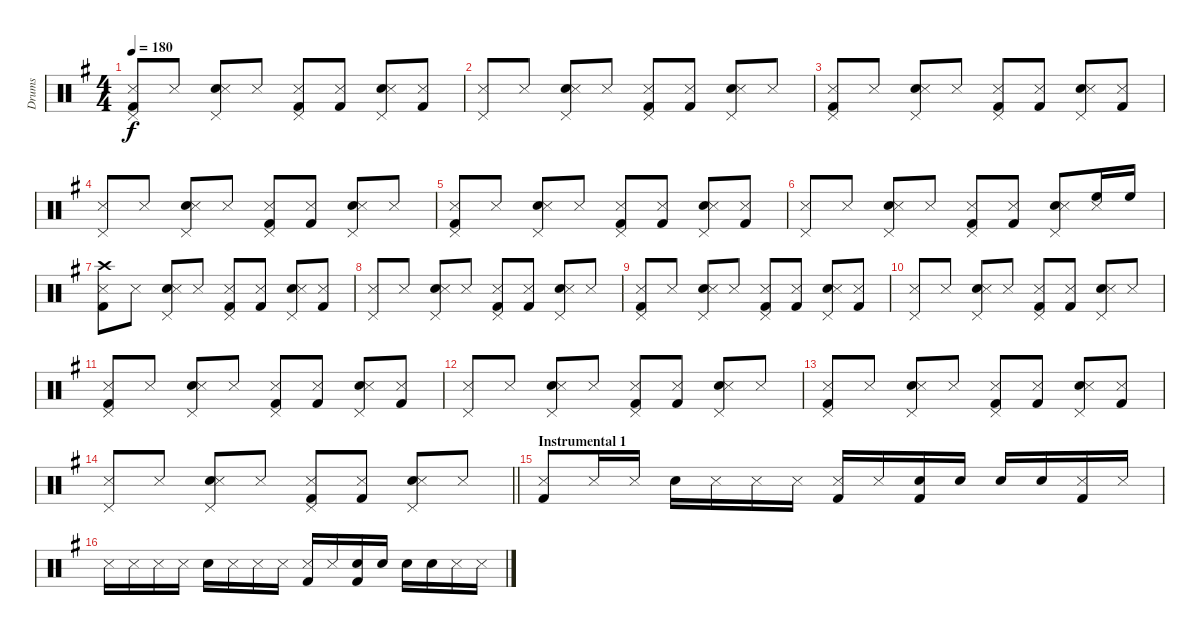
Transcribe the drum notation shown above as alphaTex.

\track ("Drums" "Drums") {instrument percussion bank 255}
\staff {score}
\articulation defaults
\ts (4 4)
\tempo 180
\clef neutral
\ks g
("Pedal Hi-Hat (hit)" "Snare (side stick) 3" "Kick (hit) 2").8{dy f} "Snare (side stick) 3".8 ("Pedal Hi-Hat (hit)" "Snare (hit) 2" "Snare (side stick) 3").8 "Snare (side stick) 3".8 ("Pedal Hi-Hat (hit)" "Snare (side stick) 3" "Kick (hit) 2").8 ("Snare (side stick) 3" "Kick (hit) 2").8 ("Pedal Hi-Hat (hit)" "Snare (hit) 2" "Snare (side stick) 3").8 ("Snare (side stick) 3" "Kick (hit) 2").8 |
("Pedal Hi-Hat (hit)" "Snare (side stick) 3").8 "Snare (side stick) 3".8 ("Pedal Hi-Hat (hit)" "Snare (hit) 2" "Snare (side stick) 3").8 "Snare (side stick) 3".8 ("Pedal Hi-Hat (hit)" "Snare (side stick) 3" "Kick (hit) 2").8 ("Snare (side stick) 3" "Kick (hit) 2").8 ("Pedal Hi-Hat (hit)" "Snare (hit) 2" "Snare (side stick) 3").8 "Snare (side stick) 3".8 |
("Pedal Hi-Hat (hit)" "Snare (side stick) 3" "Kick (hit) 2").8 "Snare (side stick) 3".8 ("Pedal Hi-Hat (hit)" "Snare (hit) 2" "Snare (side stick) 3").8 "Snare (side stick) 3".8 ("Pedal Hi-Hat (hit)" "Snare (side stick) 3" "Kick (hit) 2").8 ("Snare (side stick) 3" "Kick (hit) 2").8 ("Pedal Hi-Hat (hit)" "Snare (hit) 2" "Snare (side stick) 3").8 ("Snare (side stick) 3" "Kick (hit) 2").8 |
("Pedal Hi-Hat (hit)" "Snare (side stick) 3").8 "Snare (side stick) 3".8 ("Pedal Hi-Hat (hit)" "Snare (hit) 2" "Snare (side stick) 3").8 "Snare (side stick) 3".8 ("Pedal Hi-Hat (hit)" "Snare (side stick) 3" "Kick (hit) 2").8 ("Snare (side stick) 3" "Kick (hit) 2").8 ("Pedal Hi-Hat (hit)" "Snare (hit) 2" "Snare (side stick) 3").8 "Snare (side stick) 3".8 |
("Pedal Hi-Hat (hit)" "Snare (side stick) 3" "Kick (hit) 2").8 "Snare (side stick) 3".8 ("Pedal Hi-Hat (hit)" "Snare (hit) 2" "Snare (side stick) 3").8 "Snare (side stick) 3".8 ("Pedal Hi-Hat (hit)" "Snare (side stick) 3" "Kick (hit) 2").8 ("Snare (side stick) 3" "Kick (hit) 2").8 ("Pedal Hi-Hat (hit)" "Snare (hit) 2" "Snare (side stick) 3").8 ("Snare (side stick) 3" "Kick (hit) 2").8 |
("Pedal Hi-Hat (hit)" "Snare (side stick) 3").8 "Snare (side stick) 3".8 ("Pedal Hi-Hat (hit)" "Snare (hit) 2" "Snare (side stick) 3").8 "Snare (side stick) 3".8 ("Pedal Hi-Hat (hit)" "Snare (side stick) 3" "Kick (hit) 2").8 ("Snare (side stick) 3" "Kick (hit) 2").8 ("Pedal Hi-Hat (hit)" "Snare (hit) 2" "Snare (side stick) 3").8 ("High Floor Tom (hit)" "Snare (side stick) 3").16 "High Floor Tom (hit)".16 |
("Crash high (hit)" "Snare (side stick) 3" "Kick (hit) 2").8 "Snare (side stick) 3".8 ("Pedal Hi-Hat (hit)" "Snare (hit) 2" "Snare (side stick) 3").8 "Snare (side stick) 3".8 ("Pedal Hi-Hat (hit)" "Snare (side stick) 3" "Kick (hit) 2").8 ("Snare (side stick) 3" "Kick (hit) 2").8 ("Pedal Hi-Hat (hit)" "Snare (hit) 2" "Snare (side stick) 3").8 ("Snare (side stick) 3" "Kick (hit) 2").8 |
("Pedal Hi-Hat (hit)" "Snare (side stick) 3").8 "Snare (side stick) 3".8 ("Pedal Hi-Hat (hit)" "Snare (hit) 2" "Snare (side stick) 3").8 "Snare (side stick) 3".8 ("Pedal Hi-Hat (hit)" "Snare (side stick) 3" "Kick (hit) 2").8 ("Snare (side stick) 3" "Kick (hit) 2").8 ("Pedal Hi-Hat (hit)" "Snare (hit) 2" "Snare (side stick) 3").8 "Snare (side stick) 3".8 |
("Pedal Hi-Hat (hit)" "Snare (side stick) 3" "Kick (hit) 2").8 "Snare (side stick) 3".8 ("Pedal Hi-Hat (hit)" "Snare (hit) 2" "Snare (side stick) 3").8 "Snare (side stick) 3".8 ("Pedal Hi-Hat (hit)" "Snare (side stick) 3" "Kick (hit) 2").8 ("Snare (side stick) 3" "Kick (hit) 2").8 ("Pedal Hi-Hat (hit)" "Snare (hit) 2" "Snare (side stick) 3").8 ("Snare (side stick) 3" "Kick (hit) 2").8 |
("Pedal Hi-Hat (hit)" "Snare (side stick) 3").8 "Snare (side stick) 3".8 ("Pedal Hi-Hat (hit)" "Snare (hit) 2" "Snare (side stick) 3").8 "Snare (side stick) 3".8 ("Pedal Hi-Hat (hit)" "Snare (side stick) 3" "Kick (hit) 2").8 ("Snare (side stick) 3" "Kick (hit) 2").8 ("Pedal Hi-Hat (hit)" "Snare (hit) 2" "Snare (side stick) 3").8 "Snare (side stick) 3".8 |
("Pedal Hi-Hat (hit)" "Snare (side stick) 3" "Kick (hit) 2").8 "Snare (side stick) 3".8 ("Pedal Hi-Hat (hit)" "Snare (hit) 2" "Snare (side stick) 3").8 "Snare (side stick) 3".8 ("Pedal Hi-Hat (hit)" "Snare (side stick) 3" "Kick (hit) 2").8 ("Snare (side stick) 3" "Kick (hit) 2").8 ("Pedal Hi-Hat (hit)" "Snare (hit) 2" "Snare (side stick) 3").8 ("Snare (side stick) 3" "Kick (hit) 2").8 |
("Pedal Hi-Hat (hit)" "Snare (side stick) 3").8 "Snare (side stick) 3".8 ("Pedal Hi-Hat (hit)" "Snare (hit) 2" "Snare (side stick) 3").8 "Snare (side stick) 3".8 ("Pedal Hi-Hat (hit)" "Snare (side stick) 3" "Kick (hit) 2").8 ("Snare (side stick) 3" "Kick (hit) 2").8 ("Pedal Hi-Hat (hit)" "Snare (hit) 2" "Snare (side stick) 3").8 "Snare (side stick) 3".8 |
("Pedal Hi-Hat (hit)" "Snare (side stick) 3" "Kick (hit) 2").8 "Snare (side stick) 3".8 ("Pedal Hi-Hat (hit)" "Snare (hit) 2" "Snare (side stick) 3").8 "Snare (side stick) 3".8 ("Pedal Hi-Hat (hit)" "Snare (side stick) 3" "Kick (hit) 2").8 ("Snare (side stick) 3" "Kick (hit) 2").8 ("Pedal Hi-Hat (hit)" "Snare (hit) 2" "Snare (side stick) 3").8 ("Snare (side stick) 3" "Kick (hit) 2").8 |
\barLineRight lightlight
("Pedal Hi-Hat (hit)" "Snare (side stick) 3").8 "Snare (side stick) 3".8 ("Pedal Hi-Hat (hit)" "Snare (hit) 2" "Snare (side stick) 3").8 "Snare (side stick) 3".8 ("Pedal Hi-Hat (hit)" "Snare (side stick) 3" "Kick (hit) 2").8 ("Snare (side stick) 3" "Kick (hit) 2").8 ("Pedal Hi-Hat (hit)" "Snare (hit) 2" "Snare (side stick) 3").8 "Snare (side stick) 3".8 |
\section ("" "Instrumental 1")
("Snare (side stick) 3" "Kick (hit) 2").8 "Snare (side stick) 3".16 "Snare (side stick) 3".16 "Snare (hit) 2".16 "Snare (side stick) 3".16 "Snare (side stick) 3".16 "Snare (side stick) 3".16 ("Snare (side stick) 3" "Kick (hit) 2").16 "Snare (side stick) 3".16 ("Snare (hit) 2" "Kick (hit) 2").16 "Snare (hit) 2".16 "Snare (hit) 2".16 "Snare (hit) 2".16 ("Snare (side stick) 3" "Kick (hit) 2").16 "Snare (side stick) 3".16 |
"Snare (side stick) 3".16 "Snare (side stick) 3".16 "Snare (side stick) 3".16 "Snare (side stick) 3".16 "Snare (hit) 2".16 "Snare (side stick) 3".16 "Snare (side stick) 3".16 "Snare (side stick) 3".16 ("Snare (side stick) 3" "Kick (hit) 2").16 "Snare (side stick) 3".16 ("Snare (hit) 2" "Kick (hit) 2").16 "Snare (hit) 2".16 "Snare (hit) 2".16 "Snare (hit) 2".16 "Snare (side stick) 3".16 "Snare (side stick) 3".16
